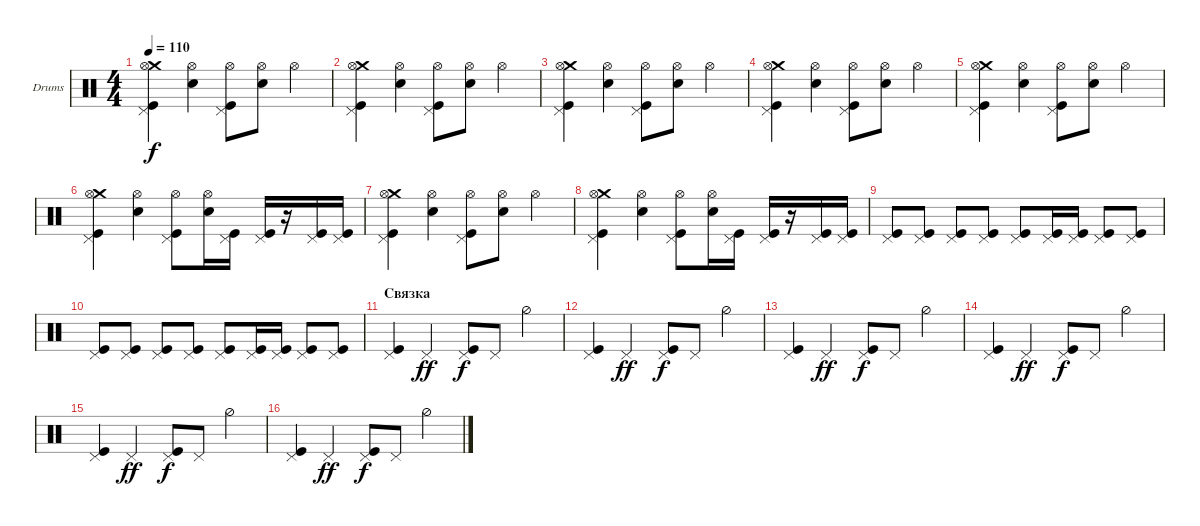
\defaultSystemsLayout 4
\bracketExtendMode groupsimilarinstruments
\firstSystemTrackNameOrientation horizontal
\otherSystemsTrackNameOrientation horizontal
\track ("Е. Кулаков" "Drums") {instrument percussion}
\staff {score}
\articulation defaults
\ts (4 4)
\tempo 110
\clef neutral
\ks c
("Crash medium (hit)" "Pedal Hi-Hat (hit)" "Kick (hit)" "Hi-Hat (open)").4{dy f} ("Snare (hit) 2" "Hi-Hat (open)").4 ("Pedal Hi-Hat (hit)" "Kick (hit)" "Hi-Hat (open)").8 ("Snare (hit) 2" "Hi-Hat (open)").8 "Hi-Hat (open)".4 |
("Crash medium (hit)" "Pedal Hi-Hat (hit)" "Kick (hit)" "Hi-Hat (open)").4 ("Snare (hit) 2" "Hi-Hat (open)").4 ("Pedal Hi-Hat (hit)" "Kick (hit)" "Hi-Hat (open)").8 ("Snare (hit) 2" "Hi-Hat (open)").8 "Hi-Hat (open)".4 |
("Crash medium (hit)" "Pedal Hi-Hat (hit)" "Kick (hit)" "Hi-Hat (open)").4 ("Snare (hit) 2" "Hi-Hat (open)").4 ("Pedal Hi-Hat (hit)" "Kick (hit)" "Hi-Hat (open)").8 ("Snare (hit) 2" "Hi-Hat (open)").8 "Hi-Hat (open)".4 |
("Crash medium (hit)" "Pedal Hi-Hat (hit)" "Kick (hit)" "Hi-Hat (open)").4 ("Snare (hit) 2" "Hi-Hat (open)").4 ("Pedal Hi-Hat (hit)" "Kick (hit)" "Hi-Hat (open)").8 ("Snare (hit) 2" "Hi-Hat (open)").8 "Hi-Hat (open)".4 |
("Crash medium (hit)" "Pedal Hi-Hat (hit)" "Kick (hit)" "Hi-Hat (open)").4 ("Snare (hit) 2" "Hi-Hat (open)").4 ("Pedal Hi-Hat (hit)" "Kick (hit)" "Hi-Hat (open)").8 ("Snare (hit) 2" "Hi-Hat (open)").8 "Hi-Hat (open)".4 |
("Crash medium (hit)" "Pedal Hi-Hat (hit)" "Kick (hit)" "Hi-Hat (open)").4 ("Snare (hit) 2" "Hi-Hat (open)").4 ("Pedal Hi-Hat (hit)" "Kick (hit)" "Hi-Hat (open)").8 ("Snare (hit) 2" "Hi-Hat (open)").16 ("Pedal Hi-Hat (hit)" "Kick (hit)").16 ("Pedal Hi-Hat (hit)" "Kick (hit)").16 r.16 ("Pedal Hi-Hat (hit)" "Kick (hit)").16 ("Pedal Hi-Hat (hit)" "Kick (hit)").16 |
("Crash medium (hit)" "Pedal Hi-Hat (hit)" "Kick (hit)" "Hi-Hat (open)").4 ("Snare (hit) 2" "Hi-Hat (open)").4 ("Pedal Hi-Hat (hit)" "Kick (hit)" "Hi-Hat (open)").8 ("Snare (hit) 2" "Hi-Hat (open)").8 "Hi-Hat (open)".4 |
("Crash medium (hit)" "Pedal Hi-Hat (hit)" "Kick (hit)" "Hi-Hat (open)").4 ("Snare (hit) 2" "Hi-Hat (open)").4 ("Pedal Hi-Hat (hit)" "Kick (hit)" "Hi-Hat (open)").8 ("Snare (hit) 2" "Hi-Hat (open)").16 ("Pedal Hi-Hat (hit)" "Kick (hit)").16 ("Pedal Hi-Hat (hit)" "Kick (hit)").16 r.16 ("Pedal Hi-Hat (hit)" "Kick (hit)").16 ("Pedal Hi-Hat (hit)" "Kick (hit)").16 |
("Pedal Hi-Hat (hit)" "Kick (hit)").8 ("Pedal Hi-Hat (hit)" "Kick (hit)").8 ("Pedal Hi-Hat (hit)" "Kick (hit)").8 ("Pedal Hi-Hat (hit)" "Kick (hit)").8 ("Pedal Hi-Hat (hit)" "Kick (hit)").8 ("Pedal Hi-Hat (hit)" "Kick (hit)").16 ("Pedal Hi-Hat (hit)" "Kick (hit)").16 ("Pedal Hi-Hat (hit)" "Kick (hit)").8 ("Pedal Hi-Hat (hit)" "Kick (hit)").8 |
("Pedal Hi-Hat (hit)" "Kick (hit)").8 ("Pedal Hi-Hat (hit)" "Kick (hit)").8 ("Pedal Hi-Hat (hit)" "Kick (hit)").8 ("Pedal Hi-Hat (hit)" "Kick (hit)").8 ("Pedal Hi-Hat (hit)" "Kick (hit)").8 ("Pedal Hi-Hat (hit)" "Kick (hit)").16 ("Pedal Hi-Hat (hit)" "Kick (hit)").16 ("Pedal Hi-Hat (hit)" "Kick (hit)").8 ("Pedal Hi-Hat (hit)" "Kick (hit)").8 |
\section ("" "Связка")
("Pedal Hi-Hat (hit)" "Kick (hit)").4 "Pedal Hi-Hat (hit)".4{dy ff} ("Pedal Hi-Hat (hit)" "Kick (hit)").8{dy f} "Pedal Hi-Hat (hit)".8 "Hi-Hat (half)".4 |
("Pedal Hi-Hat (hit)" "Kick (hit)").4 "Pedal Hi-Hat (hit)".4{dy ff} ("Pedal Hi-Hat (hit)" "Kick (hit)").8{dy f} "Pedal Hi-Hat (hit)".8 "Hi-Hat (half)".4 |
("Pedal Hi-Hat (hit)" "Kick (hit)").4 "Pedal Hi-Hat (hit)".4{dy ff} ("Pedal Hi-Hat (hit)" "Kick (hit)").8{dy f} "Pedal Hi-Hat (hit)".8 "Hi-Hat (half)".4 |
("Pedal Hi-Hat (hit)" "Kick (hit)").4 "Pedal Hi-Hat (hit)".4{dy ff} ("Pedal Hi-Hat (hit)" "Kick (hit)").8{dy f} "Pedal Hi-Hat (hit)".8 "Hi-Hat (half)".4 |
("Pedal Hi-Hat (hit)" "Kick (hit)").4 "Pedal Hi-Hat (hit)".4{dy ff} ("Pedal Hi-Hat (hit)" "Kick (hit)").8{dy f} "Pedal Hi-Hat (hit)".8 "Hi-Hat (half)".4 |
("Pedal Hi-Hat (hit)" "Kick (hit)").4 "Pedal Hi-Hat (hit)".4{dy ff} ("Pedal Hi-Hat (hit)" "Kick (hit)").8{dy f} "Pedal Hi-Hat (hit)".8 "Hi-Hat (half)".4
